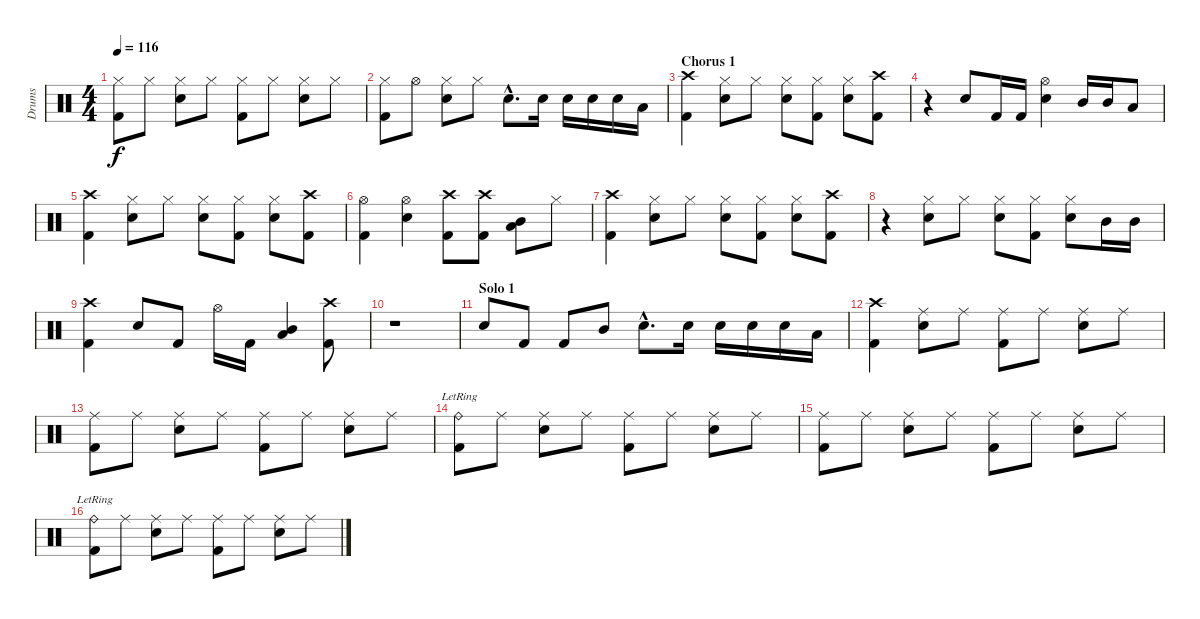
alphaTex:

\track ("Drums" "Drums") {instrument percussion}
\staff {score}
\articulation defaults
\ts (4 4)
\tempo 116
\clef neutral
\ks c
("Hi-Hat (closed)" "Kick (hit) 2").8{dy f} "Hi-Hat (closed)".8 ("Hi-Hat (closed)" "Snare (hit) 2").8 "Hi-Hat (closed)".8 ("Hi-Hat (closed)" "Kick (hit) 2").8 "Hi-Hat (closed)".8 ("Hi-Hat (closed)" "Snare (hit) 2").8 "Hi-Hat (closed)".8 |
("Hi-Hat (closed)" "Kick (hit) 2").8 "Hi-Hat (open)".8 ("Hi-Hat (closed)" "Snare (hit) 2").8 "Hi-Hat (closed)".8 "Snare (hit) 2"{hac}.8{d} "Snare (hit) 2".16 "Snare (hit) 2".16 "Snare (hit) 2".16 "Snare (hit) 2".16 "Low Tom (hit)".16 |
\section ("" "Chorus 1")
("Crash high (hit)" "Kick (hit) 2").4 ("Hi-Hat (closed)" "Snare (hit) 2").8 "Hi-Hat (closed)".8 ("Hi-Hat (closed)" "Snare (hit) 2").8 ("Hi-Hat (closed)" "Kick (hit) 2").8 ("Hi-Hat (closed)" "Snare (hit) 2").8 ("Crash high (hit)" "Kick (hit) 2").8 |
r.4 "Snare (hit) 2".8 "Kick (hit) 2".16 "Kick (hit) 2".16 ("Hi-Hat (open)" "Snare (hit) 2").4 "Mid Tom (hit)".16 "Mid Tom (hit)".16 "Low Tom (hit)".8 |
("Crash high (hit)" "Kick (hit) 2").4 ("Hi-Hat (closed)" "Snare (hit) 2").8 "Hi-Hat (closed)".8 ("Hi-Hat (closed)" "Snare (hit) 2").8 ("Hi-Hat (closed)" "Kick (hit) 2").8 ("Hi-Hat (closed)" "Snare (hit) 2").8 ("Crash high (hit)" "Kick (hit) 2").8 |
("Hi-Hat (open)" "Kick (hit) 2").4 ("Hi-Hat (open)" "Snare (hit) 2").4 ("Crash high (hit)" "Kick (hit) 2").8 ("Crash high (hit)" "Kick (hit) 2").8 ("Low Tom (hit)" "Mid Tom (hit)").8 "Hi-Hat (closed)".8 |
("Crash high (hit)" "Kick (hit) 2").4 ("Hi-Hat (closed)" "Snare (hit) 2").8 "Hi-Hat (closed)".8 ("Hi-Hat (closed)" "Snare (hit) 2").8 ("Hi-Hat (closed)" "Kick (hit) 2").8 ("Hi-Hat (closed)" "Snare (hit) 2").8 ("Crash high (hit)" "Kick (hit) 2").8 |
r.4 ("Hi-Hat (closed)" "Snare (hit) 2").8 "Hi-Hat (closed)".8 ("Hi-Hat (closed)" "Snare (hit) 2").8 ("Hi-Hat (closed)" "Kick (hit) 2").8 ("Hi-Hat (closed)" "Snare (hit) 2").8 "Mid Tom (hit)".16 "Mid Tom (hit)".16 |
("Crash high (hit)" "Kick (hit) 2").4 "Snare (hit) 2".8 "Kick (hit) 2".8 "Hi-Hat (open)".16 "Kick (hit) 2".16 ("Low Tom (hit)" "Mid Tom (hit)").4 ("Crash high (hit)" "Kick (hit) 2").8 |
r.1 |
\section ("" "Solo 1")
"Snare (hit) 2".8 "Kick (hit) 2".8 "Kick (hit) 2".8 "Mid Tom (hit)".8 "Snare (hit) 2"{hac}.8{d} "Snare (hit) 2".16 "Snare (hit) 2".16 "Snare (hit) 2".16 "Snare (hit) 2".16 "Low Tom (hit)".16 |
("Crash high (hit)" "Kick (hit) 2").4 ("Ride (middle)" "Snare (hit) 2").8 "Ride (middle)".8 ("Ride (middle)" "Kick (hit) 2").8 "Ride (middle)".8 ("Ride (middle)" "Snare (hit) 2").8 "Ride (middle)".8 |
("Ride (middle)" "Kick (hit) 2").8 "Ride (middle)".8 ("Ride (middle)" "Snare (hit) 2").8 "Ride (middle)".8 ("Ride (middle)" "Kick (hit) 2").8 "Ride (middle)".8 ("Ride (middle)" "Snare (hit) 2").8 "Ride (middle)".8 |
("Ride (bell)"{lr} "Kick (hit) 2").8 "Ride (middle)".8 ("Ride (middle)" "Snare (hit) 2").8 "Ride (middle)".8 ("Ride (middle)" "Kick (hit) 2").8 "Ride (middle)".8 ("Ride (middle)" "Snare (hit) 2").8 "Ride (middle)".8 |
("Ride (middle)" "Kick (hit) 2").8 "Ride (middle)".8 ("Ride (middle)" "Snare (hit) 2").8 "Ride (middle)".8 ("Ride (middle)" "Kick (hit) 2").8 "Ride (middle)".8 ("Ride (middle)" "Snare (hit) 2").8 "Ride (middle)".8 |
("Ride (bell)"{lr} "Kick (hit) 2").8 "Ride (middle)".8 ("Ride (middle)" "Snare (hit) 2").8 "Ride (middle)".8 ("Ride (middle)" "Kick (hit) 2").8 "Ride (middle)".8 ("Ride (middle)" "Snare (hit) 2").8 "Ride (middle)".8
